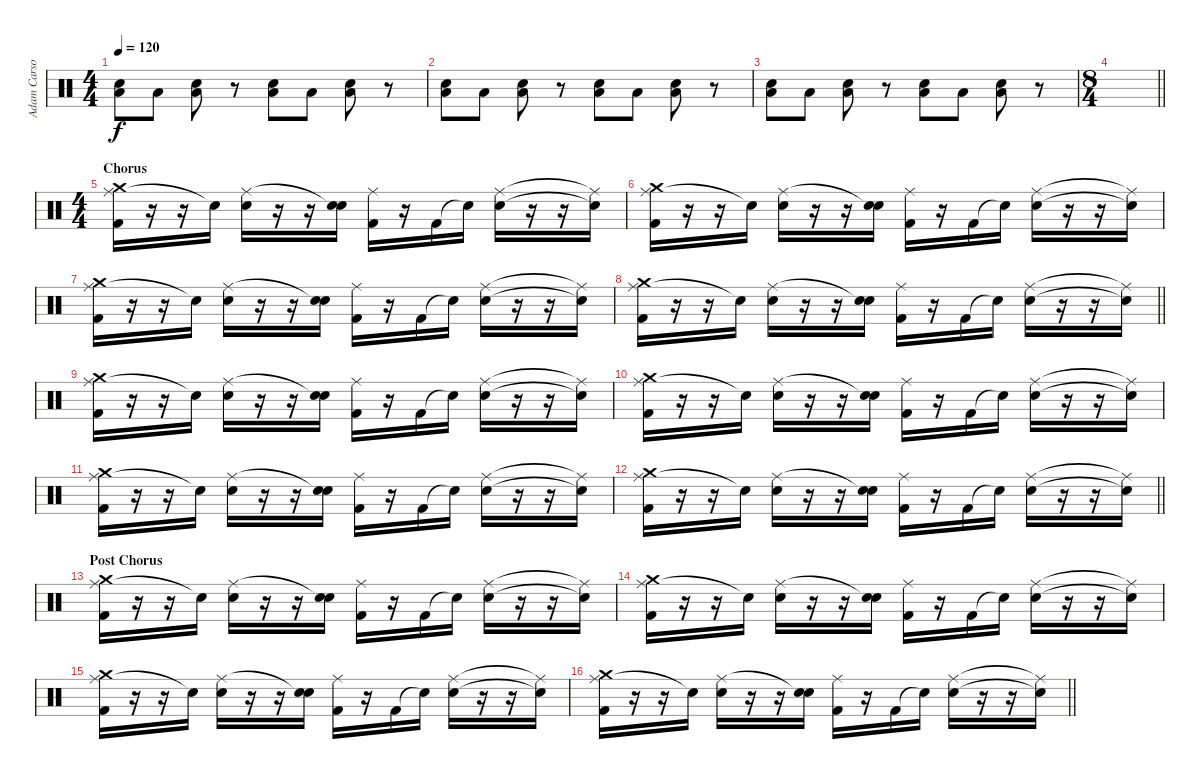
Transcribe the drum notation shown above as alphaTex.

\track ("Adam Carson (Percussion)" "Adam Carso") {instrument percussion}
\staff {score}
\articulation defaults
\ts (4 4)
\tempo 120
\clef neutral
\ks c
("Low Floor Tom (hit)" "Hand Clap (hit)").8{dy f} "Low Tom (hit)".8 ("Low Floor Tom (hit)" "Hand Clap (hit)").8 r.8 ("Low Floor Tom (hit)" "Hand Clap (hit)").8 "Low Tom (hit)".8 ("Low Floor Tom (hit)" "Hand Clap (hit)").8 r.8 |
("Low Floor Tom (hit)" "Hand Clap (hit)").8 "Low Tom (hit)".8 ("Low Floor Tom (hit)" "Hand Clap (hit)").8 r.8 ("Low Floor Tom (hit)" "Hand Clap (hit)").8 "Low Tom (hit)".8 ("Low Floor Tom (hit)" "Hand Clap (hit)").8 r.8 |
("Low Floor Tom (hit)" "Hand Clap (hit)").8 "Low Tom (hit)".8 ("Low Floor Tom (hit)" "Hand Clap (hit)").8 r.8 ("Low Floor Tom (hit)" "Hand Clap (hit)").8 "Low Tom (hit)".8 ("Low Floor Tom (hit)" "Hand Clap (hit)").8 r.8 |
\ts (8 4)
\barLineRight lightlight
|
\ts (4 4)
\section ("" "Chorus")
("Ride (middle)" "Crash medium (hit)" "Kick (hit) 2").16 r.16 r.16 "Snare (hit)"{t}.16 ("Ride (middle)" "Snare (hit) 2").16 r.16 r.16 ("Snare (hit)"{t} "Snare (hit) 2").16 ("Ride (middle)" "Kick (hit) 2").16 r.16 "Kick (hit) 2".16 "Snare (hit)"{t}.16 ("Ride (middle)" "Snare (hit) 2").16 r.16 r.16 ("Ride (middle)"{t} "Snare (hit)"{t}).16 |
("Ride (middle)" "Crash medium (hit)" "Kick (hit) 2").16 r.16 r.16 "Snare (hit)"{t}.16 ("Ride (middle)" "Snare (hit) 2").16 r.16 r.16 ("Snare (hit)"{t} "Snare (hit) 2").16 ("Ride (middle)" "Kick (hit) 2").16 r.16 "Kick (hit) 2".16 "Snare (hit)"{t}.16 ("Ride (middle)" "Snare (hit) 2").16 r.16 r.16 ("Ride (middle)"{t} "Snare (hit)"{t}).16 |
("Ride (middle)" "Crash medium (hit)" "Kick (hit) 2").16 r.16 r.16 "Snare (hit)"{t}.16 ("Ride (middle)" "Snare (hit) 2").16 r.16 r.16 ("Snare (hit)"{t} "Snare (hit) 2").16 ("Ride (middle)" "Kick (hit) 2").16 r.16 "Kick (hit) 2".16 "Snare (hit)"{t}.16 ("Ride (middle)" "Snare (hit) 2").16 r.16 r.16 ("Ride (middle)"{t} "Snare (hit)"{t}).16 |
\barLineRight lightlight
("Ride (middle)" "Crash medium (hit)" "Kick (hit) 2").16 r.16 r.16 "Snare (hit)"{t}.16 ("Ride (middle)" "Snare (hit) 2").16 r.16 r.16 ("Snare (hit)"{t} "Snare (hit) 2").16 ("Ride (middle)" "Kick (hit) 2").16 r.16 "Kick (hit) 2".16 "Snare (hit)"{t}.16 ("Ride (middle)" "Snare (hit) 2").16 r.16 r.16 ("Ride (middle)"{t} "Snare (hit)"{t}).16 |
("Ride (middle)" "Crash medium (hit)" "Kick (hit) 2").16 r.16 r.16 "Snare (hit)"{t}.16 ("Ride (middle)" "Snare (hit) 2").16 r.16 r.16 ("Snare (hit)"{t} "Snare (hit) 2").16 ("Ride (middle)" "Kick (hit) 2").16 r.16 "Kick (hit) 2".16 "Snare (hit)"{t}.16 ("Ride (middle)" "Snare (hit) 2").16 r.16 r.16 ("Ride (middle)"{t} "Snare (hit)"{t}).16 |
("Ride (middle)" "Crash medium (hit)" "Kick (hit) 2").16 r.16 r.16 "Snare (hit)"{t}.16 ("Ride (middle)" "Snare (hit) 2").16 r.16 r.16 ("Snare (hit)"{t} "Snare (hit) 2").16 ("Ride (middle)" "Kick (hit) 2").16 r.16 "Kick (hit) 2".16 "Snare (hit)"{t}.16 ("Ride (middle)" "Snare (hit) 2").16 r.16 r.16 ("Ride (middle)"{t} "Snare (hit)"{t}).16 |
("Ride (middle)" "Crash medium (hit)" "Kick (hit) 2").16 r.16 r.16 "Snare (hit)"{t}.16 ("Ride (middle)" "Snare (hit) 2").16 r.16 r.16 ("Snare (hit)"{t} "Snare (hit) 2").16 ("Ride (middle)" "Kick (hit) 2").16 r.16 "Kick (hit) 2".16 "Snare (hit)"{t}.16 ("Ride (middle)" "Snare (hit) 2").16 r.16 r.16 ("Ride (middle)"{t} "Snare (hit)"{t}).16 |
\barLineRight lightlight
("Ride (middle)" "Crash medium (hit)" "Kick (hit) 2").16 r.16 r.16 "Snare (hit)"{t}.16 ("Ride (middle)" "Snare (hit) 2").16 r.16 r.16 ("Snare (hit)"{t} "Snare (hit) 2").16 ("Ride (middle)" "Kick (hit) 2").16 r.16 "Kick (hit) 2".16 "Snare (hit)"{t}.16 ("Ride (middle)" "Snare (hit) 2").16 r.16 r.16 ("Ride (middle)"{t} "Snare (hit)"{t}).16 |
\section ("" "Post Chorus")
("Ride (middle)" "Crash medium (hit)" "Kick (hit) 2").16 r.16 r.16 "Snare (hit)"{t}.16 ("Ride (middle)" "Snare (hit) 2").16 r.16 r.16 ("Snare (hit)"{t} "Snare (hit) 2").16 ("Ride (middle)" "Kick (hit) 2").16 r.16 "Kick (hit) 2".16 "Snare (hit)"{t}.16 ("Ride (middle)" "Snare (hit) 2").16 r.16 r.16 ("Ride (middle)"{t} "Snare (hit)"{t}).16 |
("Ride (middle)" "Crash medium (hit)" "Kick (hit) 2").16 r.16 r.16 "Snare (hit)"{t}.16 ("Ride (middle)" "Snare (hit) 2").16 r.16 r.16 ("Snare (hit)"{t} "Snare (hit) 2").16 ("Ride (middle)" "Kick (hit) 2").16 r.16 "Kick (hit) 2".16 "Snare (hit)"{t}.16 ("Ride (middle)" "Snare (hit) 2").16 r.16 r.16 ("Ride (middle)"{t} "Snare (hit)"{t}).16 |
("Ride (middle)" "Crash medium (hit)" "Kick (hit) 2").16 r.16 r.16 "Snare (hit)"{t}.16 ("Ride (middle)" "Snare (hit) 2").16 r.16 r.16 ("Snare (hit)"{t} "Snare (hit) 2").16 ("Ride (middle)" "Kick (hit) 2").16 r.16 "Kick (hit) 2".16 "Snare (hit)"{t}.16 ("Ride (middle)" "Snare (hit) 2").16 r.16 r.16 ("Ride (middle)"{t} "Snare (hit)"{t}).16 |
\barLineRight lightlight
("Ride (middle)" "Crash medium (hit)" "Kick (hit) 2").16 r.16 r.16 "Snare (hit)"{t}.16 ("Ride (middle)" "Snare (hit) 2").16 r.16 r.16 ("Snare (hit)"{t} "Snare (hit) 2").16 ("Ride (middle)" "Kick (hit) 2").16 r.16 "Kick (hit) 2".16 "Snare (hit)"{t}.16 ("Ride (middle)" "Snare (hit) 2").16 r.16 r.16 ("Ride (middle)"{t} "Snare (hit)"{t}).16
